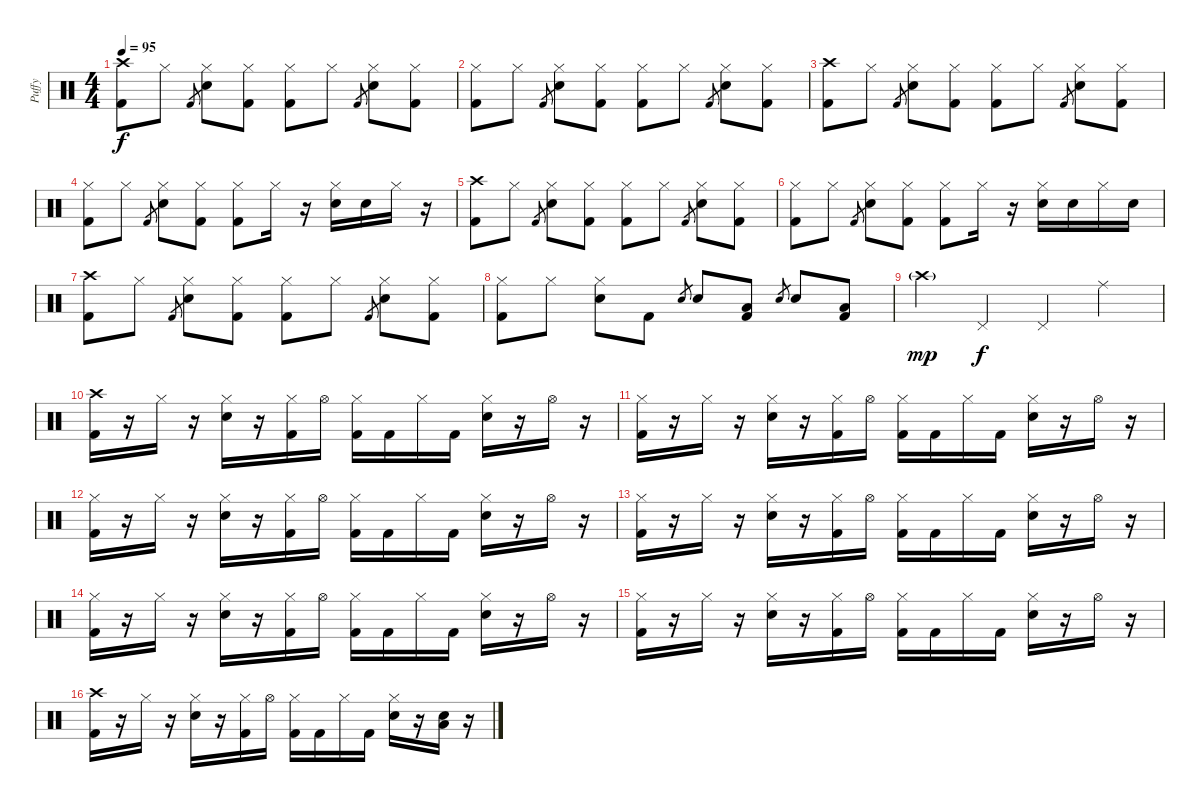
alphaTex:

\track ("Puffy" "Puffy") {instrument percussion}
\staff {score}
\articulation defaults
\ts (4 4)
\tempo 95
\clef neutral
\ks c
("Crash high (hit)" "Kick (hit) 2").8{dy f} "Hi-Hat (closed)".8 "Kick (hit) 2".8{gr} ("Hi-Hat (closed)" "Snare (hit) 2").8 ("Hi-Hat (closed)" "Kick (hit) 2").8 ("Hi-Hat (closed)" "Kick (hit) 2").8 "Hi-Hat (closed)".8 "Kick (hit) 2".8{gr} ("Hi-Hat (closed)" "Snare (hit) 2").8 ("Hi-Hat (closed)" "Kick (hit) 2").8 |
("Hi-Hat (closed)" "Kick (hit) 2").8 "Hi-Hat (closed)".8 "Kick (hit) 2".8{gr} ("Hi-Hat (closed)" "Snare (hit) 2").8 ("Hi-Hat (closed)" "Kick (hit) 2").8 ("Hi-Hat (closed)" "Kick (hit) 2").8 "Hi-Hat (closed)".8 "Kick (hit) 2".8{gr} ("Hi-Hat (closed)" "Snare (hit) 2").8 ("Hi-Hat (closed)" "Kick (hit) 2").8 |
("Crash high (hit)" "Kick (hit) 2").8 "Hi-Hat (closed)".8 "Kick (hit) 2".8{gr} ("Hi-Hat (closed)" "Snare (hit) 2").8 ("Hi-Hat (closed)" "Kick (hit) 2").8 ("Hi-Hat (closed)" "Kick (hit) 2").8 "Hi-Hat (closed)".8 "Kick (hit) 2".8{gr} ("Hi-Hat (closed)" "Snare (hit) 2").8 ("Hi-Hat (closed)" "Kick (hit) 2").8 |
("Hi-Hat (closed)" "Kick (hit) 2").8 "Hi-Hat (closed)".8 "Kick (hit) 2".8{gr} ("Hi-Hat (closed)" "Snare (hit) 2").8 ("Hi-Hat (closed)" "Kick (hit) 2").8 ("Hi-Hat (closed)" "Kick (hit) 2").8 "Hi-Hat (closed)".16 r.16 ("Hi-Hat (closed)" "Snare (hit) 2").16 "Snare (hit) 2".16 "Hi-Hat (closed)".16 r.16 |
("Crash high (hit)" "Kick (hit) 2").8 "Hi-Hat (closed)".8 "Kick (hit) 2".8{gr} ("Hi-Hat (closed)" "Snare (hit) 2").8 ("Hi-Hat (closed)" "Kick (hit) 2").8 ("Hi-Hat (closed)" "Kick (hit) 2").8 "Hi-Hat (closed)".8 "Kick (hit) 2".8{gr} ("Hi-Hat (closed)" "Snare (hit) 2").8 ("Hi-Hat (closed)" "Kick (hit) 2").8 |
("Hi-Hat (closed)" "Kick (hit) 2").8 "Hi-Hat (closed)".8 "Kick (hit) 2".8{gr} ("Hi-Hat (closed)" "Snare (hit) 2").8 ("Hi-Hat (closed)" "Kick (hit) 2").8 ("Hi-Hat (closed)" "Kick (hit) 2").8 "Hi-Hat (closed)".16 r.16 ("Hi-Hat (closed)" "Snare (hit) 2").16 "Snare (hit) 2".16 "Hi-Hat (closed)".16 "Snare (hit) 2".16 |
("Crash high (hit)" "Kick (hit) 2").8 "Hi-Hat (closed)".8 "Kick (hit) 2".8{gr} ("Hi-Hat (closed)" "Snare (hit) 2").8 ("Hi-Hat (closed)" "Kick (hit) 2").8 ("Hi-Hat (closed)" "Kick (hit) 2").8 "Hi-Hat (closed)".8 "Kick (hit) 2".8{gr} ("Hi-Hat (closed)" "Snare (hit) 2").8 ("Hi-Hat (closed)" "Kick (hit) 2").8 |
("Hi-Hat (closed)" "Kick (hit) 2").8 "Hi-Hat (closed)".8 ("Hi-Hat (closed)" "Snare (hit) 2").8 "Kick (hit) 2".8 "Snare (hit) 2".8{gr} "Snare (hit) 2".8 ("Low Floor Tom (hit)" "Kick (hit) 2").8 "Snare (hit) 2".8{gr} "Snare (hit) 2".8 ("Low Floor Tom (hit)" "Kick (hit) 2").8 |
"Crash high (hit)"{g}.4{dy mp} "Pedal Hi-Hat (hit)".4{dy f} "Pedal Hi-Hat (hit)".4 "Ride (middle)".4 |
("Crash high (hit)" "Kick (hit) 2").16 r.16 "Hi-Hat (closed)".16 r.16 ("Hi-Hat (closed)" "Snare (hit) 2").16 r.16 ("Hi-Hat (closed)" "Kick (hit) 2").16 "Hi-Hat (open)".16 ("Hi-Hat (closed)" "Kick (hit) 2").16 "Kick (hit) 2".16 "Hi-Hat (closed)".16 "Kick (hit) 2".16 ("Hi-Hat (closed)" "Snare (hit) 2").16 r.16 "Hi-Hat (open)".16 r.16 |
("Hi-Hat (closed)" "Kick (hit) 2").16 r.16 "Hi-Hat (closed)".16 r.16 ("Hi-Hat (closed)" "Snare (hit) 2").16 r.16 ("Hi-Hat (closed)" "Kick (hit) 2").16 "Hi-Hat (open)".16 ("Hi-Hat (closed)" "Kick (hit) 2").16 "Kick (hit) 2".16 "Hi-Hat (closed)".16 "Kick (hit) 2".16 ("Hi-Hat (closed)" "Snare (hit) 2").16 r.16 "Hi-Hat (open)".16 r.16 |
("Hi-Hat (closed)" "Kick (hit) 2").16 r.16 "Hi-Hat (closed)".16 r.16 ("Hi-Hat (closed)" "Snare (hit) 2").16 r.16 ("Hi-Hat (closed)" "Kick (hit) 2").16 "Hi-Hat (open)".16 ("Hi-Hat (closed)" "Kick (hit) 2").16 "Kick (hit) 2".16 "Hi-Hat (closed)".16 "Kick (hit) 2".16 ("Hi-Hat (closed)" "Snare (hit) 2").16 r.16 "Hi-Hat (open)".16 r.16 |
("Hi-Hat (closed)" "Kick (hit) 2").16 r.16 "Hi-Hat (closed)".16 r.16 ("Hi-Hat (closed)" "Snare (hit) 2").16 r.16 ("Hi-Hat (closed)" "Kick (hit) 2").16 "Hi-Hat (open)".16 ("Hi-Hat (closed)" "Kick (hit) 2").16 "Kick (hit) 2".16 "Hi-Hat (closed)".16 "Kick (hit) 2".16 ("Hi-Hat (closed)" "Snare (hit) 2").16 r.16 "Hi-Hat (open)".16 r.16 |
("Hi-Hat (closed)" "Kick (hit) 2").16 r.16 "Hi-Hat (closed)".16 r.16 ("Hi-Hat (closed)" "Snare (hit) 2").16 r.16 ("Hi-Hat (closed)" "Kick (hit) 2").16 "Hi-Hat (open)".16 ("Hi-Hat (closed)" "Kick (hit) 2").16 "Kick (hit) 2".16 "Hi-Hat (closed)".16 "Kick (hit) 2".16 ("Hi-Hat (closed)" "Snare (hit) 2").16 r.16 "Hi-Hat (open)".16 r.16 |
("Hi-Hat (closed)" "Kick (hit) 2").16 r.16 "Hi-Hat (closed)".16 r.16 ("Hi-Hat (closed)" "Snare (hit) 2").16 r.16 ("Hi-Hat (closed)" "Kick (hit) 2").16 "Hi-Hat (open)".16 ("Hi-Hat (closed)" "Kick (hit) 2").16 "Kick (hit) 2".16 "Hi-Hat (closed)".16 "Kick (hit) 2".16 ("Hi-Hat (closed)" "Snare (hit) 2").16 r.16 "Hi-Hat (open)".16 r.16 |
("Crash high (hit)" "Kick (hit) 2").16 r.16 "Hi-Hat (closed)".16 r.16 ("Hi-Hat (closed)" "Snare (hit) 2").16 r.16 ("Hi-Hat (closed)" "Kick (hit) 2").16 "Hi-Hat (open)".16 ("Hi-Hat (closed)" "Kick (hit) 2").16 "Kick (hit) 2".16 "Hi-Hat (closed)".16 "Kick (hit) 2".16 ("Hi-Hat (closed)" "Snare (hit) 2").16 r.16 ("Snare (hit) 2" "Low Floor Tom (hit)").16 r.16
